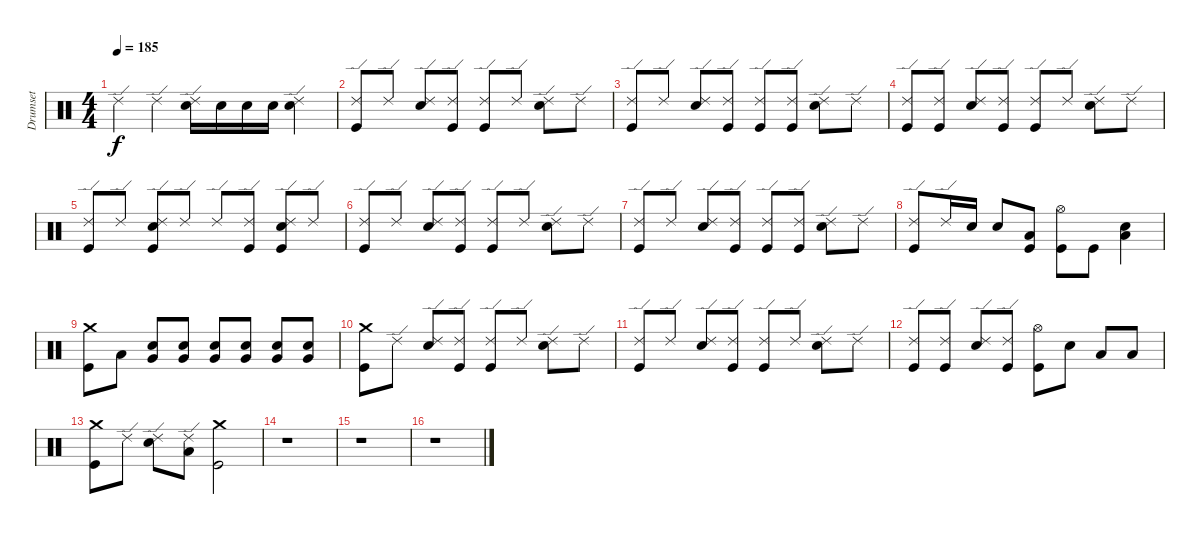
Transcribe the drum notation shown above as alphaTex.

\track ("Drumset" "Drumset") {instrument percussion}
\staff {score}
\articulation defaults
\ts (4 4)
\tempo 185
\clef neutral
\ks c "Ride (edge) 2".4{dy f} "Ride (edge) 2".4
("Ride (edge) 2" "Snare (hit) 2").16 "Snare (hit) 2".16 "Snare (hit) 2".16 "Snare (hit) 2".16 ("Ride (edge) 2" "Snare (hit) 2").4 |
("Ride (edge) 2" "Kick (hit)").8 "Ride (edge) 2".8 ("Ride (edge) 2" "Snare (hit) 2").8 ("Ride (edge) 2" "Kick (hit)").8 ("Ride (edge) 2" "Kick (hit)").8 "Ride (edge) 2".8 ("Ride (edge) 2" "Snare (hit) 2").8 "Ride (edge) 2".8 |
("Ride (edge) 2" "Kick (hit)").8 "Ride (edge) 2".8 ("Ride (edge) 2" "Snare (hit) 2").8 ("Ride (edge) 2" "Kick (hit)").8 ("Ride (edge) 2" "Kick (hit)").8 ("Ride (edge) 2" "Kick (hit)").8 ("Ride (edge) 2" "Snare (hit) 2").8 "Ride (edge) 2".8 |
("Ride (edge) 2" "Kick (hit)").8 ("Ride (edge) 2" "Kick (hit)").8 ("Ride (edge) 2" "Snare (hit) 2").8 ("Ride (edge) 2" "Kick (hit)").8 ("Ride (edge) 2" "Kick (hit)").8 "Ride (edge) 2".8 ("Ride (edge) 2" "Snare (hit) 2").8 "Ride (edge) 2".8 |
("Ride (edge) 2" "Kick (hit)").8 "Ride (edge) 2".8 ("Ride (edge) 2" "Snare (hit) 2" "Kick (hit)").8 "Ride (edge) 2".8 "Ride (edge) 2".8 ("Ride (edge) 2" "Kick (hit)").8 ("Ride (edge) 2" "Snare (hit) 2" "Kick (hit)").8 "Ride (edge) 2".8 |
("Ride (edge) 2" "Kick (hit)").8 "Ride (edge) 2".8 ("Ride (edge) 2" "Snare (hit) 2").8 ("Ride (edge) 2" "Kick (hit)").8 ("Ride (edge) 2" "Kick (hit)").8 "Ride (edge) 2".8 ("Ride (edge) 2" "Snare (hit) 2").8 "Ride (edge) 2".8 |
("Ride (edge) 2" "Kick (hit)").8 "Ride (edge) 2".8 ("Ride (edge) 2" "Snare (hit) 2").8 ("Ride (edge) 2" "Kick (hit)").8 ("Ride (edge) 2" "Kick (hit)").8 ("Ride (edge) 2" "Kick (hit)").8 ("Ride (edge) 2" "Snare (hit) 2").8 "Ride (edge) 2".8 |
("Ride (edge) 2" "Kick (hit)").8 "Ride (edge) 2".16 "Snare (hit) 2".16 "Snare (hit) 2".8 ("Low Tom (hit)" "Kick (hit)").8 ("Hi-Hat (open)" "Kick (hit)").8 "Kick (hit)".8 ("Low Tom (hit)" "Snare (hit) 2").4 |
("Crash medium (hit)" "Kick (hit)").8 "Low Tom (hit)".8 ("Very Low Tom (hit)" "Snare (hit) 2").8 ("Very Low Tom (hit)" "Snare (hit) 2").8 ("Very Low Tom (hit)" "Snare (hit) 2").8 ("Very Low Tom (hit)" "Snare (hit) 2").8 ("Very Low Tom (hit)" "Snare (hit) 2").8 ("Very Low Tom (hit)" "Snare (hit) 2").8 |
("Crash medium (hit)" "Kick (hit)").8 "Ride (edge) 2".8 ("Ride (edge) 2" "Snare (hit) 2").8 ("Ride (edge) 2" "Kick (hit)").8 ("Ride (edge) 2" "Kick (hit)").8 "Ride (edge) 2".8 ("Ride (edge) 2" "Snare (hit) 2").8 "Ride (edge) 2".8 |
("Ride (edge) 2" "Kick (hit)").8 "Ride (edge) 2".8 ("Ride (edge) 2" "Snare (hit) 2").8 ("Ride (edge) 2" "Kick (hit)").8 ("Ride (edge) 2" "Kick (hit)").8 "Ride (edge) 2".8 ("Ride (edge) 2" "Snare (hit) 2").8 "Ride (edge) 2".8 |
("Ride (edge) 2" "Kick (hit)").8 ("Ride (edge) 2" "Kick (hit)").8 ("Ride (edge) 2" "Snare (hit) 2").8 ("Ride (edge) 2" "Kick (hit)").8 ("Hi-Hat (open)" "Kick (hit)").8 "Snare (hit) 2".8 "Low Tom (hit)".8 "Low Tom (hit)".8 |
("Crash medium (hit)" "Kick (hit)").8 "Ride (edge) 2".8 ("Ride (edge) 2" "Snare (hit) 2").8 ("Ride (edge) 2" "Low Tom (hit)").8 ("Crash medium (hit)" "Kick (hit)").2 |
r.1 |
r.1 |
r.1
